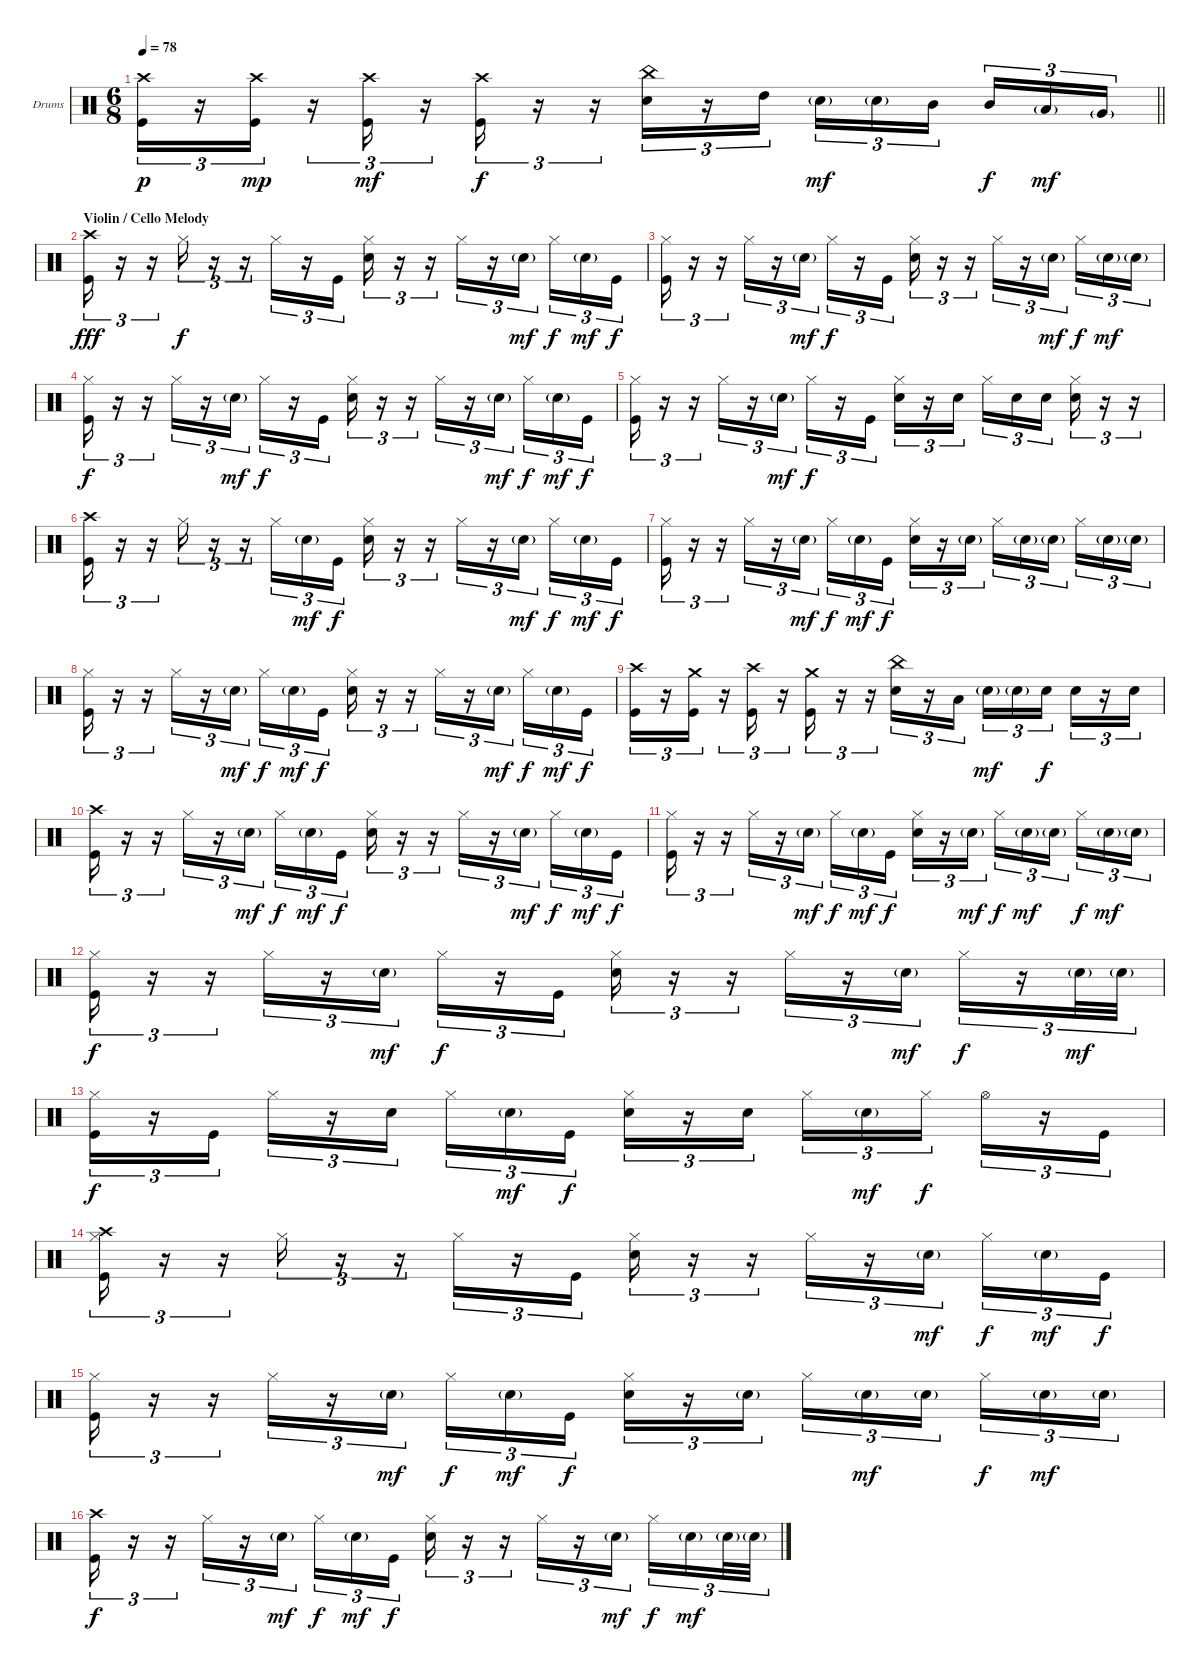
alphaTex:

\bracketExtendMode nobrackets
\firstSystemTrackNameOrientation horizontal
\otherSystemsTrackNameOrientation horizontal
\track ("Drumkit" "Drums") {instrument percussion}
\staff {score}
\articulation defaults
\ts (6 8)
\tempo 78
\clef neutral
\barLineRight lightlight
\ks c
("Crash high (hit)" "Kick (hit)").16{tu (3 2) dy p} r.16{tu (3 2)} ("Crash high (hit)" "Kick (hit)").16{tu (3 2) dy mp} r.16{tu (3 2)} ("Crash high (hit)" "Kick (hit)").16{tu (3 2) dy mf} r.16{tu (3 2)} ("Crash high (hit)" "Kick (hit)").16{tu (3 2) dy f} r.16{tu (3 2)} r.16{tu (3 2)} ("China (hit)" "Snare (hit) 2").16{tu (3 2)} r.16{tu (3 2)} "High Tom (hit)".16{tu (3 2)} "Snare (hit) 2"{g}.16{tu (3 2) dy mf} "Snare (hit) 2"{g}.16{tu (3 2)} "Mid Tom (hit)".16{tu (3 2)} "Mid Tom (hit)".16{tu (3 2) dy f} "Low Tom (hit)"{g}.16{tu (3 2) dy mf} "Very Low Tom (hit)"{g}.16{tu (3 2)} |
\section ("" "Violin / Cello Melody")
("Crash high (hit)" "Kick (hit)").16{tu (3 2) dy fff} r.16{tu (3 2)} r.16{tu (3 2)} "Hi-Hat (closed)".16{tu (3 2) dy f} r.16{tu (3 2)} r.16{tu (3 2)} "Hi-Hat (closed)".16{tu (3 2)} r.16{tu (3 2)} "Kick (hit)".16{tu (3 2)} ("Hi-Hat (closed)" "Snare (hit) 2").16{tu (3 2)} r.16{tu (3 2)} r.16{tu (3 2)} "Hi-Hat (closed)".16{tu (3 2)} r.16{tu (3 2)} "Snare (hit) 2"{g}.16{tu (3 2) dy mf} "Hi-Hat (closed)".16{tu (3 2) dy f} "Snare (hit) 2"{g}.16{tu (3 2) dy mf} "Kick (hit)".16{tu (3 2) dy f} |
("Hi-Hat (closed)" "Kick (hit)").16{tu (3 2)} r.16{tu (3 2)} r.16{tu (3 2)} "Hi-Hat (closed)".16{tu (3 2)} r.16{tu (3 2)} "Snare (hit) 2"{g}.16{tu (3 2) dy mf} "Hi-Hat (closed)".16{tu (3 2) dy f} r.16{tu (3 2)} "Kick (hit)".16{tu (3 2)} ("Hi-Hat (closed)" "Snare (hit) 2").16{tu (3 2)} r.16{tu (3 2)} r.16{tu (3 2)} "Hi-Hat (closed)".16{tu (3 2)} r.16{tu (3 2)} "Snare (hit) 2"{g}.16{tu (3 2) dy mf} "Hi-Hat (closed)".16{tu (3 2) dy f} "Snare (hit) 2"{g}.16{tu (3 2) dy mf} "Snare (hit) 2"{g}.16{tu (3 2)} |
("Hi-Hat (closed)" "Kick (hit)").16{tu (3 2) dy f} r.16{tu (3 2)} r.16{tu (3 2)} "Hi-Hat (closed)".16{tu (3 2)} r.16{tu (3 2)} "Snare (hit) 2"{g}.16{tu (3 2) dy mf} "Hi-Hat (closed)".16{tu (3 2) dy f} r.16{tu (3 2)} "Kick (hit)".16{tu (3 2)} ("Hi-Hat (closed)" "Snare (hit) 2").16{tu (3 2)} r.16{tu (3 2)} r.16{tu (3 2)} "Hi-Hat (closed)".16{tu (3 2)} r.16{tu (3 2)} "Snare (hit) 2"{g}.16{tu (3 2) dy mf} "Hi-Hat (closed)".16{tu (3 2) dy f} "Snare (hit) 2"{g}.16{tu (3 2) dy mf} "Kick (hit)".16{tu (3 2) dy f} |
("Hi-Hat (closed)" "Kick (hit)").16{tu (3 2)} r.16{tu (3 2)} r.16{tu (3 2)} "Hi-Hat (closed)".16{tu (3 2)} r.16{tu (3 2)} "Snare (hit) 2"{g}.16{tu (3 2) dy mf} "Hi-Hat (closed)".16{tu (3 2) dy f} r.16{tu (3 2)} "Kick (hit)".16{tu (3 2)} ("Hi-Hat (closed)" "Snare (hit) 2").16{tu (3 2)} r.16{tu (3 2)} "Snare (hit) 2".16{tu (3 2)} "Hi-Hat (closed)".16{tu (3 2)} "Snare (hit) 2".16{tu (3 2)} "Snare (hit) 2".16{tu (3 2)} ("Hi-Hat (closed)" "Snare (hit) 2").16{tu (3 2)} r.16{tu (3 2)} r.16{tu (3 2)} |
("Crash high (hit)" "Kick (hit)").16{tu (3 2)} r.16{tu (3 2)} r.16{tu (3 2)} "Hi-Hat (closed)".16{tu (3 2)} r.16{tu (3 2)} r.16{tu (3 2)} "Hi-Hat (closed)".16{tu (3 2)} "Snare (hit) 2"{g}.16{tu (3 2) dy mf} "Kick (hit)".16{tu (3 2) dy f} ("Hi-Hat (closed)" "Snare (hit) 2").16{tu (3 2)} r.16{tu (3 2)} r.16{tu (3 2)} "Hi-Hat (closed)".16{tu (3 2)} r.16{tu (3 2)} "Snare (hit) 2"{g}.16{tu (3 2) dy mf} "Hi-Hat (closed)".16{tu (3 2) dy f} "Snare (hit) 2"{g}.16{tu (3 2) dy mf} "Kick (hit)".16{tu (3 2) dy f} |
("Hi-Hat (closed)" "Kick (hit)").16{tu (3 2)} r.16{tu (3 2)} r.16{tu (3 2)} "Hi-Hat (closed)".16{tu (3 2)} r.16{tu (3 2)} "Snare (hit) 2"{g}.16{tu (3 2) dy mf} "Hi-Hat (closed)".16{tu (3 2) dy f} "Snare (hit) 2"{g}.16{tu (3 2) dy mf} "Kick (hit)".16{tu (3 2) dy f} ("Hi-Hat (closed)" "Snare (hit) 2").16{tu (3 2)} r.16{tu (3 2)} "Snare (hit) 2"{g}.16{tu (3 2)} "Hi-Hat (closed)".16{tu (3 2)} "Snare (hit) 2"{g}.16{tu (3 2)} "Snare (hit) 2"{g}.16{tu (3 2)} "Hi-Hat (closed)".16{tu (3 2)} "Snare (hit) 2"{g}.16{tu (3 2)} "Snare (hit) 2"{g}.16{tu (3 2)} |
("Hi-Hat (closed)" "Kick (hit)").16{tu (3 2)} r.16{tu (3 2)} r.16{tu (3 2)} "Hi-Hat (closed)".16{tu (3 2)} r.16{tu (3 2)} "Snare (hit) 2"{g}.16{tu (3 2) dy mf} "Hi-Hat (closed)".16{tu (3 2) dy f} "Snare (hit) 2"{g}.16{tu (3 2) dy mf} "Kick (hit)".16{tu (3 2) dy f} ("Hi-Hat (closed)" "Snare (hit) 2").16{tu (3 2)} r.16{tu (3 2)} r.16{tu (3 2)} "Hi-Hat (closed)".16{tu (3 2)} r.16{tu (3 2)} "Snare (hit) 2"{g}.16{tu (3 2) dy mf} "Hi-Hat (closed)".16{tu (3 2) dy f} "Snare (hit) 2"{g}.16{tu (3 2) dy mf} "Kick (hit)".16{tu (3 2) dy f} |
("Crash high (hit)" "Kick (hit)").16{tu (3 2)} r.16{tu (3 2)} ("Crash medium (hit)" "Kick (hit)").16{tu (3 2)} r.16{tu (3 2)} ("Crash high (hit)" "Kick (hit)").16{tu (3 2)} r.16{tu (3 2)} ("Crash medium (hit)" "Kick (hit)").16{tu (3 2)} r.16{tu (3 2)} r.16{tu (3 2)} ("China (hit)" "Snare (hit) 2").16{tu (3 2)} r.16{tu (3 2)} "Low Tom (hit)".16{tu (3 2)} "Snare (hit) 2"{g}.16{tu (3 2) dy mf} "Snare (hit) 2"{g}.16{tu (3 2)} "Snare (hit) 2".16{tu (3 2) dy f} "Snare (hit) 2".16{tu (3 2)} r.16{tu (3 2)} "Snare (hit) 2".16{tu (3 2)} |
("Crash high (hit)" "Kick (hit)").16{tu (3 2)} r.16{tu (3 2)} r.16{tu (3 2)} "Hi-Hat (closed)".16{tu (3 2)} r.16{tu (3 2)} "Snare (hit) 2"{g}.16{tu (3 2) dy mf} "Hi-Hat (closed)".16{tu (3 2) dy f} "Snare (hit) 2"{g}.16{tu (3 2) dy mf} "Kick (hit)".16{tu (3 2) dy f} ("Hi-Hat (closed)" "Snare (hit) 2").16{tu (3 2)} r.16{tu (3 2)} r.16{tu (3 2)} "Hi-Hat (closed)".16{tu (3 2)} r.16{tu (3 2)} "Snare (hit) 2"{g}.16{tu (3 2) dy mf} "Hi-Hat (closed)".16{tu (3 2) dy f} "Snare (hit) 2"{g}.16{tu (3 2) dy mf} "Kick (hit)".16{tu (3 2) dy f} |
("Hi-Hat (closed)" "Kick (hit)").16{tu (3 2)} r.16{tu (3 2)} r.16{tu (3 2)} "Hi-Hat (closed)".16{tu (3 2)} r.16{tu (3 2)} "Snare (hit) 2"{g}.16{tu (3 2) dy mf} "Hi-Hat (closed)".16{tu (3 2) dy f} "Snare (hit) 2"{g}.16{tu (3 2) dy mf} "Kick (hit)".16{tu (3 2) dy f} ("Hi-Hat (closed)" "Snare (hit) 2").16{tu (3 2)} r.16{tu (3 2)} "Snare (hit) 2"{g}.16{tu (3 2) dy mf} "Hi-Hat (closed)".16{tu (3 2) dy f} "Snare (hit) 2"{g}.16{tu (3 2) dy mf} "Snare (hit) 2"{g}.16{tu (3 2)} "Hi-Hat (closed)".16{tu (3 2) dy f} "Snare (hit) 2"{g}.16{tu (3 2) dy mf} "Snare (hit) 2"{g}.16{tu (3 2)} |
("Hi-Hat (closed)" "Kick (hit)").16{tu (3 2) dy f} r.16{tu (3 2)} r.16{tu (3 2)} "Hi-Hat (closed)".16{tu (3 2)} r.16{tu (3 2)} "Snare (hit) 2"{g}.16{tu (3 2) dy mf} "Hi-Hat (closed)".16{tu (3 2) dy f} r.16{tu (3 2)} "Kick (hit)".16{tu (3 2)} ("Hi-Hat (closed)" "Snare (hit) 2").16{tu (3 2)} r.16{tu (3 2)} r.16{tu (3 2)} "Hi-Hat (closed)".16{tu (3 2)} r.16{tu (3 2)} "Snare (hit) 2"{g}.16{tu (3 2) dy mf} "Hi-Hat (closed)".16{tu (3 2) dy f} r.16{tu (3 2)} "Snare (hit) 2"{g}.32{tu (3 2) dy mf} "Snare (hit) 2"{g}.32{tu (3 2)} |
("Hi-Hat (closed)" "Kick (hit)").16{tu (3 2) dy f} r.16{tu (3 2)} "Kick (hit)".16{tu (3 2)} "Hi-Hat (closed)".16{tu (3 2)} r.16{tu (3 2)} "Snare (hit) 2".16{tu (3 2)} "Hi-Hat (closed)".16{tu (3 2)} "Snare (hit) 2"{g}.16{tu (3 2) dy mf} "Kick (hit)".16{tu (3 2) dy f} ("Hi-Hat (closed)" "Snare (hit) 2").16{tu (3 2)} r.16{tu (3 2)} "Snare (hit) 2".16{tu (3 2)} "Hi-Hat (closed)".16{tu (3 2)} "Snare (hit) 2"{g}.16{tu (3 2) dy mf} "Hi-Hat (closed)".16{tu (3 2) dy f} "Hi-Hat (open)".16{tu (3 2)} r.16{tu (3 2)} "Kick (hit)".16{tu (3 2)} |
("Hi-Hat (closed)" "Crash high (hit)" "Kick (hit)").16{tu (3 2)} r.16{tu (3 2)} r.16{tu (3 2)} "Hi-Hat (closed)".16{tu (3 2)} r.16{tu (3 2)} r.16{tu (3 2)} "Hi-Hat (closed)".16{tu (3 2)} r.16{tu (3 2)} "Kick (hit)".16{tu (3 2)} ("Hi-Hat (closed)" "Snare (hit) 2").16{tu (3 2)} r.16{tu (3 2)} r.16{tu (3 2)} "Hi-Hat (closed)".16{tu (3 2)} r.16{tu (3 2)} "Snare (hit) 2"{g}.16{tu (3 2) dy mf} "Hi-Hat (closed)".16{tu (3 2) dy f} "Snare (hit) 2"{g}.16{tu (3 2) dy mf} "Kick (hit)".16{tu (3 2) dy f} |
("Hi-Hat (closed)" "Kick (hit)").16{tu (3 2)} r.16{tu (3 2)} r.16{tu (3 2)} "Hi-Hat (closed)".16{tu (3 2)} r.16{tu (3 2)} "Snare (hit) 2"{g}.16{tu (3 2) dy mf} "Hi-Hat (closed)".16{tu (3 2) dy f} "Snare (hit) 2"{g}.16{tu (3 2) dy mf} "Kick (hit)".16{tu (3 2) dy f} ("Hi-Hat (closed)" "Snare (hit) 2").16{tu (3 2)} r.16{tu (3 2)} "Snare (hit) 2"{g}.16{tu (3 2)} "Hi-Hat (closed)".16{tu (3 2)} "Snare (hit) 2"{g}.16{tu (3 2) dy mf} "Snare (hit) 2"{g}.16{tu (3 2)} "Hi-Hat (closed)".16{tu (3 2) dy f} "Snare (hit) 2"{g}.16{tu (3 2) dy mf} "Snare (hit) 2"{g}.16{tu (3 2)} |
("Crash high (hit)" "Kick (hit)").16{tu (3 2) dy f} r.16{tu (3 2)} r.16{tu (3 2)} "Hi-Hat (closed)".16{tu (3 2)} r.16{tu (3 2)} "Snare (hit) 2"{g}.16{tu (3 2) dy mf} "Hi-Hat (closed)".16{tu (3 2) dy f} "Snare (hit) 2"{g}.16{tu (3 2) dy mf} "Kick (hit)".16{tu (3 2) dy f} ("Hi-Hat (closed)" "Snare (hit) 2").16{tu (3 2)} r.16{tu (3 2)} r.16{tu (3 2)} "Hi-Hat (closed)".16{tu (3 2)} r.16{tu (3 2)} "Snare (hit) 2"{g}.16{tu (3 2) dy mf} "Hi-Hat (closed)".16{tu (3 2) dy f} "Snare (hit) 2"{g}.16{tu (3 2) dy mf} "Snare (hit) 2"{g}.32{tu (3 2)} "Snare (hit) 2"{g}.32{tu (3 2)}
